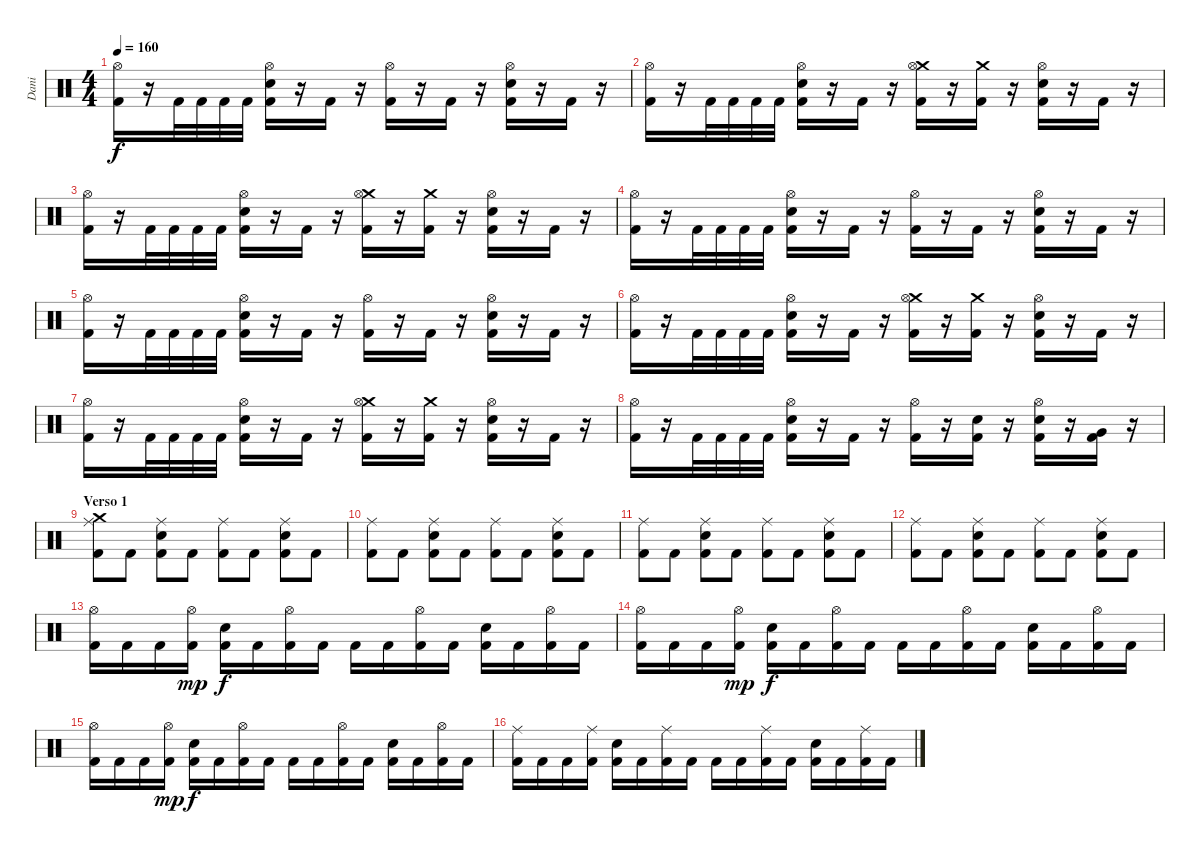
\track ("Dani" "Dani") {instrument percussion}
\staff {score}
\articulation defaults
\ts (4 4)
\tempo 160
\clef neutral
\ks c
("Hi-Hat (open)" "Kick (hit) 2").16{dy f} r.16 "Kick (hit) 2".32 "Kick (hit) 2".32 "Kick (hit) 2".32 "Kick (hit) 2".32 ("Hi-Hat (open)" "Electric Snare (hit)" "Kick (hit) 2").16 r.16 "Kick (hit) 2".16 r.16 ("Hi-Hat (open)" "Kick (hit) 2").16 r.16 "Kick (hit) 2".16 r.16 ("Hi-Hat (open)" "Electric Snare (hit)" "Kick (hit) 2").16 r.16 "Kick (hit) 2".16 r.16 |
("Hi-Hat (open)" "Kick (hit) 2").16 r.16 "Kick (hit) 2".32 "Kick (hit) 2".32 "Kick (hit) 2".32 "Kick (hit) 2".32 ("Hi-Hat (open)" "Electric Snare (hit)" "Kick (hit) 2").16 r.16 "Kick (hit) 2".16 r.16 ("Crash medium (hit)" "Hi-Hat (open)" "Kick (hit) 2").16 r.16 ("Crash medium (hit)" "Kick (hit) 2").16 r.16 ("Hi-Hat (open)" "Electric Snare (hit)" "Kick (hit) 2").16 r.16 "Kick (hit) 2".16 r.16 |
("Hi-Hat (open)" "Kick (hit) 2").16 r.16 "Kick (hit) 2".32 "Kick (hit) 2".32 "Kick (hit) 2".32 "Kick (hit) 2".32 ("Hi-Hat (open)" "Electric Snare (hit)" "Kick (hit) 2").16 r.16 "Kick (hit) 2".16 r.16 ("Crash medium (hit)" "Hi-Hat (open)" "Kick (hit) 2").16 r.16 ("Crash medium (hit)" "Kick (hit) 2").16 r.16 ("Hi-Hat (open)" "Electric Snare (hit)" "Kick (hit) 2").16 r.16 "Kick (hit) 2".16 r.16 |
("Hi-Hat (open)" "Kick (hit) 2").16 r.16 "Kick (hit) 2".32 "Kick (hit) 2".32 "Kick (hit) 2".32 "Kick (hit) 2".32 ("Hi-Hat (open)" "Electric Snare (hit)" "Kick (hit) 2").16 r.16 "Kick (hit) 2".16 r.16 ("Hi-Hat (open)" "Kick (hit) 2").16 r.16 "Kick (hit) 2".16 r.16 ("Hi-Hat (open)" "Electric Snare (hit)" "Kick (hit) 2").16 r.16 "Kick (hit) 2".16 r.16 |
("Hi-Hat (open)" "Kick (hit) 2").16 r.16 "Kick (hit) 2".32 "Kick (hit) 2".32 "Kick (hit) 2".32 "Kick (hit) 2".32 ("Hi-Hat (open)" "Electric Snare (hit)" "Kick (hit) 2").16 r.16 "Kick (hit) 2".16 r.16 ("Hi-Hat (open)" "Kick (hit) 2").16 r.16 "Kick (hit) 2".16 r.16 ("Hi-Hat (open)" "Electric Snare (hit)" "Kick (hit) 2").16 r.16 "Kick (hit) 2".16 r.16 |
("Hi-Hat (open)" "Kick (hit) 2").16 r.16 "Kick (hit) 2".32 "Kick (hit) 2".32 "Kick (hit) 2".32 "Kick (hit) 2".32 ("Hi-Hat (open)" "Electric Snare (hit)" "Kick (hit) 2").16 r.16 "Kick (hit) 2".16 r.16 ("Crash medium (hit)" "Hi-Hat (open)" "Kick (hit) 2").16 r.16 ("Crash medium (hit)" "Kick (hit) 2").16 r.16 ("Hi-Hat (open)" "Electric Snare (hit)" "Kick (hit) 2").16 r.16 "Kick (hit) 2".16 r.16 |
("Hi-Hat (open)" "Kick (hit) 2").16 r.16 "Kick (hit) 2".32 "Kick (hit) 2".32 "Kick (hit) 2".32 "Kick (hit) 2".32 ("Hi-Hat (open)" "Electric Snare (hit)" "Kick (hit) 2").16 r.16 "Kick (hit) 2".16 r.16 ("Crash medium (hit)" "Hi-Hat (open)" "Kick (hit) 2").16 r.16 ("Crash medium (hit)" "Kick (hit) 2").16 r.16 ("Hi-Hat (open)" "Electric Snare (hit)" "Kick (hit) 2").16 r.16 "Kick (hit) 2".16 r.16 |
("Hi-Hat (open)" "Kick (hit) 2").16 r.16 "Kick (hit) 2".32 "Kick (hit) 2".32 "Kick (hit) 2".32 "Kick (hit) 2".32 ("Hi-Hat (open)" "Electric Snare (hit)" "Kick (hit) 2").16 r.16 "Kick (hit) 2".16 r.16 ("Hi-Hat (open)" "Kick (hit) 2").16 r.16 ("Electric Snare (hit)" "Kick (hit) 2").16 r.16 ("Hi-Hat (open)" "Electric Snare (hit)" "Kick (hit) 2").16 r.16 ("Very Low Tom (hit)" "Kick (hit) 2").16 r.16 |
\section ("" "Verso 1")
("Crash medium (hit)" "Ride (middle)" "Kick (hit) 2").8 "Kick (hit) 2".8 ("Ride (middle)" "Electric Snare (hit)" "Kick (hit) 2").8 "Kick (hit) 2".8 ("Ride (middle)" "Kick (hit) 2").8 "Kick (hit) 2".8 ("Ride (middle)" "Electric Snare (hit)" "Kick (hit) 2").8 "Kick (hit) 2".8 |
("Ride (middle)" "Kick (hit) 2").8 "Kick (hit) 2".8 ("Ride (middle)" "Electric Snare (hit)" "Kick (hit) 2").8 "Kick (hit) 2".8 ("Ride (middle)" "Kick (hit) 2").8 "Kick (hit) 2".8 ("Ride (middle)" "Electric Snare (hit)" "Kick (hit) 2").8 "Kick (hit) 2".8 |
("Ride (middle)" "Kick (hit) 2").8 "Kick (hit) 2".8 ("Ride (middle)" "Electric Snare (hit)" "Kick (hit) 2").8 "Kick (hit) 2".8 ("Ride (middle)" "Kick (hit) 2").8 "Kick (hit) 2".8 ("Ride (middle)" "Electric Snare (hit)" "Kick (hit) 2").8 "Kick (hit) 2".8 |
("Ride (middle)" "Kick (hit) 2").8 "Kick (hit) 2".8 ("Ride (middle)" "Electric Snare (hit)" "Kick (hit) 2").8 "Kick (hit) 2".8 ("Ride (middle)" "Kick (hit) 2").8 "Kick (hit) 2".8 ("Ride (middle)" "Electric Snare (hit)" "Kick (hit) 2").8 "Kick (hit) 2".8 |
("Hi-Hat (open)" "Kick (hit) 2").16 "Kick (hit) 2".16 "Kick (hit) 2".16 ("Hi-Hat (open)" "Kick (hit) 2").16{dy mp} ("Electric Snare (hit)" "Kick (hit) 2").16{dy f} "Kick (hit) 2".16 ("Hi-Hat (open)" "Kick (hit) 2").16 "Kick (hit) 2".16 "Kick (hit) 2".16 "Kick (hit) 2".16 ("Hi-Hat (open)" "Kick (hit) 2").16 "Kick (hit) 2".16 ("Electric Snare (hit)" "Kick (hit) 2").16 "Kick (hit) 2".16 ("Hi-Hat (open)" "Kick (hit) 2").16 "Kick (hit) 2".16 |
("Hi-Hat (open)" "Kick (hit) 2").16 "Kick (hit) 2".16 "Kick (hit) 2".16 ("Hi-Hat (open)" "Kick (hit) 2").16{dy mp} ("Electric Snare (hit)" "Kick (hit) 2").16{dy f} "Kick (hit) 2".16 ("Hi-Hat (open)" "Kick (hit) 2").16 "Kick (hit) 2".16 "Kick (hit) 2".16 "Kick (hit) 2".16 ("Hi-Hat (open)" "Kick (hit) 2").16 "Kick (hit) 2".16 ("Electric Snare (hit)" "Kick (hit) 2").16 "Kick (hit) 2".16 ("Hi-Hat (open)" "Kick (hit) 2").16 "Kick (hit) 2".16 |
("Hi-Hat (open)" "Kick (hit) 2").16 "Kick (hit) 2".16 "Kick (hit) 2".16 ("Hi-Hat (open)" "Kick (hit) 2").16{dy mp} ("Electric Snare (hit)" "Kick (hit) 2").16{dy f} "Kick (hit) 2".16 ("Hi-Hat (open)" "Kick (hit) 2").16 "Kick (hit) 2".16 "Kick (hit) 2".16 "Kick (hit) 2".16 ("Hi-Hat (open)" "Kick (hit) 2").16 "Kick (hit) 2".16 ("Electric Snare (hit)" "Kick (hit) 2").16 "Kick (hit) 2".16 ("Hi-Hat (open)" "Kick (hit) 2").16 "Kick (hit) 2".16 |
("Ride (middle)" "Kick (hit) 2").16 "Kick (hit) 2".16 "Kick (hit) 2".16 ("Ride (middle)" "Kick (hit) 2").16 ("Electric Snare (hit)" "Kick (hit) 2").16 "Kick (hit) 2".16 ("Ride (middle)" "Kick (hit) 2").16 "Kick (hit) 2".16 "Kick (hit) 2".16 "Kick (hit) 2".16 ("Ride (middle)" "Kick (hit) 2").16 "Kick (hit) 2".16 ("Electric Snare (hit)" "Kick (hit) 2").16 "Kick (hit) 2".16 ("Ride (middle)" "Kick (hit) 2").16 "Kick (hit) 2".16
